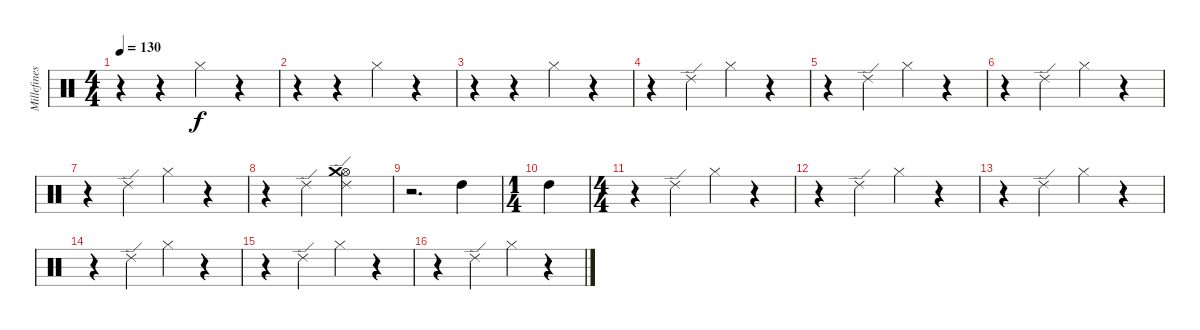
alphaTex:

\track ("Millefinestre" "Millefines") {instrument percussion}
\staff {score}
\articulation defaults
\ts (4 4)
\tempo 130
\clef neutral
\ks c
r.4{dy f} r.4 "Hi-Hat (closed)".4 r.4 |
r.4 r.4 "Hi-Hat (closed)".4 r.4 |
r.4 r.4 "Hi-Hat (closed)".4 r.4 |
r.4 "Ride (edge) 2".4 "Hi-Hat (closed)".4 r.4 |
r.4 "Ride (edge) 2".4 "Hi-Hat (closed)".4 r.4 |
r.4 "Ride (edge) 2".4 "Hi-Hat (closed)".4 r.4 |
r.4 "Ride (edge) 2".4 "Hi-Hat (closed)".4 r.4 |
r.4 "Ride (edge) 2".4 ("Hi-Hat (open)" "Crash medium (hit)" "Ride (edge) 2").2 |
r.2{d} "High Tom (hit)".4 |
\ts (1 4)
"High Tom (hit)".4 |
\ts (4 4)
r.4 "Ride (edge) 2".4 "Hi-Hat (closed)".4 r.4 |
r.4 "Ride (edge) 2".4 "Hi-Hat (closed)".4 r.4 |
r.4 "Ride (edge) 2".4 "Hi-Hat (closed)".4 r.4 |
r.4 "Ride (edge) 2".4 "Hi-Hat (closed)".4 r.4 |
r.4 "Ride (edge) 2".4 "Hi-Hat (closed)".4 r.4 |
r.4 "Ride (edge) 2".4 "Hi-Hat (closed)".4 r.4
